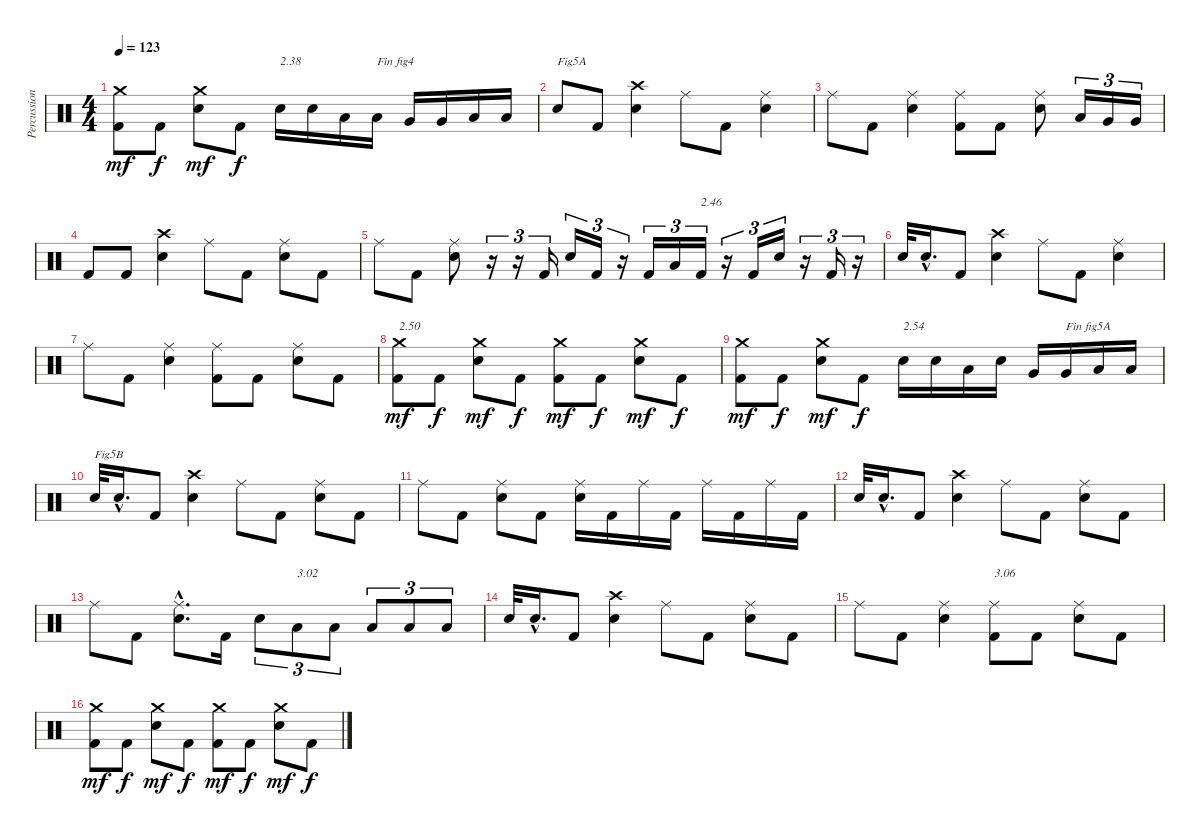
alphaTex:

\track ("Percussions" "Percussion") {instrument percussion}
\staff {score}
\articulation defaults
\ts (4 4)
\tempo 123
\clef neutral
\ks c
("Kick (hit) 2" "Crash medium (hit)").8{dy mf} "Kick (hit) 2".8{dy f} ("Electric Snare (hit)" "Crash medium (hit)").8{dy mf} "Kick (hit) 2".8{dy f} "Electric Snare (hit)".16{txt "2.38"} "Electric Snare (hit)".16 "Low Tom (hit)".16 "Low Tom (hit)".16{txt "Fin fig4"} "Very Low Tom (hit)".16 "Very Low Tom (hit)".16 "Low Floor Tom (hit)".16 "Low Floor Tom (hit)".16 |
"Electric Snare (hit)".8{txt "Fig5A"} "Kick (hit) 2".8 ("Electric Snare (hit)" "Crash high (hit)").4 "Ride (middle)".8 "Kick (hit) 2".8 ("Electric Snare (hit)" "Ride (middle)").4 |
"Ride (middle)".8 "Kick (hit) 2".8 ("Electric Snare (hit)" "Ride (middle)").4 ("Kick (hit) 2" "Ride (middle)").8 "Kick (hit) 2".8 ("Electric Snare (hit)" "Ride (middle)").8 "Low Floor Tom (hit)".16{tu (3 2)} "Very Low Tom (hit)".16{tu (3 2)} "Very Low Tom (hit)".16{tu (3 2)} |
"Kick (hit) 2".8 "Kick (hit) 2".8 ("Electric Snare (hit)" "Crash high (hit)").4 "Ride (middle)".8 "Kick (hit) 2".8 ("Electric Snare (hit)" "Ride (middle)").8 "Kick (hit) 2".8 |
"Ride (middle)".8 "Kick (hit) 2".8 ("Electric Snare (hit)" "Ride (middle)").8 r.16{tu (3 2)} r.16{tu (3 2)} "Kick (hit) 2".16{tu (3 2)} "Electric Snare (hit)".16{tu (3 2)} "Kick (hit) 2".16{tu (3 2)} r.16{tu (3 2)} "Kick (hit) 2".16{tu (3 2)} "Low Floor Tom (hit)".16{tu (3 2)} "Kick (hit) 2".16{tu (3 2) txt "2.46"} r.16{tu (3 2)} "Kick (hit) 2".16{tu (3 2)} "Electric Snare (hit)".16{tu (3 2)} r.16{tu (3 2)} "Kick (hit) 2".16{tu (3 2)} r.16{tu (3 2)} |
"Electric Snare (hit)".32 "Electric Snare (hit)"{hac}.16{d} "Kick (hit) 2".8 ("Electric Snare (hit)" "Crash high (hit)").4 "Ride (middle)".8 "Kick (hit) 2".8 ("Electric Snare (hit)" "Ride (middle)").4 |
"Ride (middle)".8 "Kick (hit) 2".8 ("Electric Snare (hit)" "Ride (middle)").4 ("Kick (hit) 2" "Ride (middle)").8 "Kick (hit) 2".8 ("Electric Snare (hit)" "Ride (middle)").8 "Kick (hit) 2".8 |
("Kick (hit) 2" "Crash medium (hit)").8{txt "2.50" dy mf} "Kick (hit) 2".8{dy f} ("Electric Snare (hit)" "Crash medium (hit)").8{dy mf} "Kick (hit) 2".8{dy f} ("Kick (hit) 2" "Crash medium (hit)").8{dy mf} "Kick (hit) 2".8{dy f} ("Electric Snare (hit)" "Crash medium (hit)").8{dy mf} "Kick (hit) 2".8{dy f} |
("Kick (hit) 2" "Crash medium (hit)").8{dy mf} "Kick (hit) 2".8{dy f} ("Electric Snare (hit)" "Crash medium (hit)").8{dy mf} "Kick (hit) 2".8{dy f} "Electric Snare (hit)".16{txt "2.54"} "Electric Snare (hit)".16 "Low Tom (hit)".16 "Electric Snare (hit)".16 "Very Low Tom (hit)".16 "Very Low Tom (hit)".16{txt "Fin fig5A"} "Low Floor Tom (hit)".16 "Low Floor Tom (hit)".16 |
"Electric Snare (hit)".32{txt "Fig5B"} "Electric Snare (hit)"{hac}.16{d} "Kick (hit) 2".8 ("Electric Snare (hit)" "Crash high (hit)").4 "Ride (middle)".8 "Kick (hit) 2".8 ("Electric Snare (hit)" "Ride (middle)").8 "Kick (hit) 2".8 |
"Ride (middle)".8 "Kick (hit) 2".8 ("Electric Snare (hit)" "Ride (middle)").8 "Kick (hit) 2".8 ("Electric Snare (hit)" "Ride (middle)").16 "Kick (hit) 2".16 "Ride (middle)".16 "Kick (hit) 2".16 "Ride (middle)".16 "Kick (hit) 2".16 "Ride (middle)".16 "Kick (hit) 2".16 |
"Electric Snare (hit)".32 "Electric Snare (hit)"{hac}.16{d} "Kick (hit) 2".8 ("Electric Snare (hit)" "Crash high (hit)").4 "Ride (middle)".8 "Kick (hit) 2".8 ("Electric Snare (hit)" "Ride (middle)").8 "Kick (hit) 2".8 |
"Ride (middle)".8 "Kick (hit) 2".8 ("Electric Snare (hit)"{hac} "Ride (middle)"{hac}).8{d} "Kick (hit) 2".16 "Electric Snare (hit)".8{tu (3 2)} "Low Floor Tom (hit)".8{tu (3 2) txt "3.02"} "Low Floor Tom (hit)".8{tu (3 2)} "Low Floor Tom (hit)".8{tu (3 2)} "Low Floor Tom (hit)".8{tu (3 2)} "Low Floor Tom (hit)".8{tu (3 2)} |
"Electric Snare (hit)".32 "Electric Snare (hit)"{hac}.16{d} "Kick (hit) 2".8 ("Electric Snare (hit)" "Crash high (hit)").4 "Ride (middle)".8 "Kick (hit) 2".8 ("Electric Snare (hit)" "Ride (middle)").8 "Kick (hit) 2".8 |
"Ride (middle)".8 "Kick (hit) 2".8 ("Electric Snare (hit)" "Ride (middle)").4 ("Kick (hit) 2" "Ride (middle)").8{txt "3.06"} "Kick (hit) 2".8 ("Electric Snare (hit)" "Ride (middle)").8 "Kick (hit) 2".8 |
("Kick (hit) 2" "Crash medium (hit)").8{dy mf} "Kick (hit) 2".8{dy f} ("Electric Snare (hit)" "Crash medium (hit)").8{dy mf} "Kick (hit) 2".8{dy f} ("Kick (hit) 2" "Crash medium (hit)").8{dy mf} "Kick (hit) 2".8{dy f} ("Electric Snare (hit)" "Crash medium (hit)").8{dy mf} "Kick (hit) 2".8{dy f}
